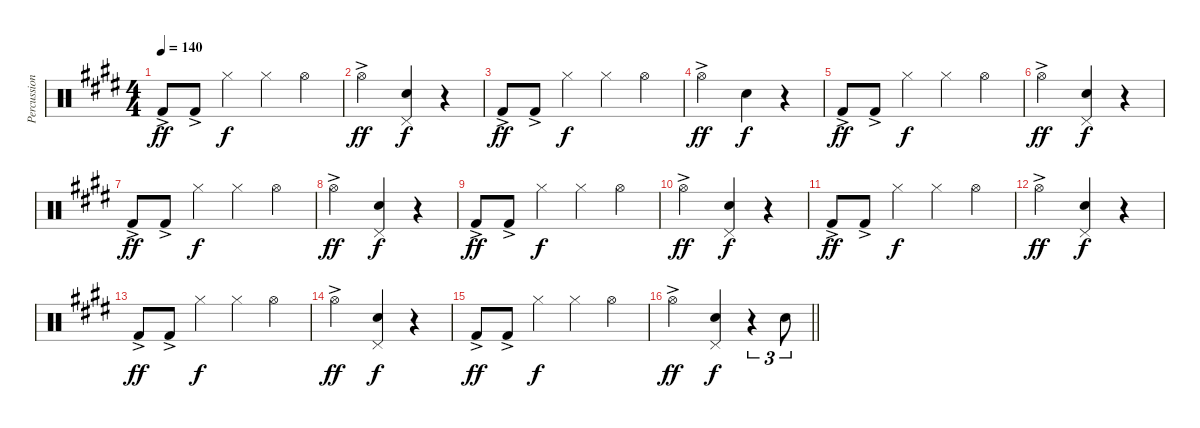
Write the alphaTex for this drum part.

\track ("Percussion" "Percussion") {instrument percussion}
\staff {score}
\articulation defaults
\ts (4 4)
\tempo 140
\clef neutral
\ks e "Kick (hit) 2"{ac}.8{dy ff} "Kick (hit) 2"{ac}.8 "Hi-Hat (closed)".4{dy f} "Hi-Hat (closed)".4 "Hi-Hat (open)".4
|
"Hi-Hat (open)"{ac}.2{dy ff} ("Snare (hit) 2" "Pedal Hi-Hat (hit)").4{dy f} r.4 |
"Kick (hit) 2"{ac}.8{dy ff} "Kick (hit) 2"{ac}.8 "Hi-Hat (closed)".4{dy f} "Hi-Hat (closed)".4 "Hi-Hat (open)".4 |
"Hi-Hat (open)"{ac}.2{dy ff} "Snare (hit) 2".4{dy f} r.4 |
"Kick (hit) 2"{ac}.8{dy ff} "Kick (hit) 2"{ac}.8 "Hi-Hat (closed)".4{dy f} "Hi-Hat (closed)".4 "Hi-Hat (open)".4 |
"Hi-Hat (open)"{ac}.2{dy ff} ("Snare (hit) 2" "Pedal Hi-Hat (hit)").4{dy f} r.4 |
"Kick (hit) 2"{ac}.8{dy ff} "Kick (hit) 2"{ac}.8 "Hi-Hat (closed)".4{dy f} "Hi-Hat (closed)".4 "Hi-Hat (open)".4 |
"Hi-Hat (open)"{ac}.2{dy ff} ("Snare (hit) 2" "Pedal Hi-Hat (hit)").4{dy f} r.4 |
"Kick (hit) 2"{ac}.8{dy ff} "Kick (hit) 2"{ac}.8 "Hi-Hat (closed)".4{dy f} "Hi-Hat (closed)".4 "Hi-Hat (open)".4 |
"Hi-Hat (open)"{ac}.2{dy ff} ("Snare (hit) 2" "Pedal Hi-Hat (hit)").4{dy f} r.4 |
"Kick (hit) 2"{ac}.8{dy ff} "Kick (hit) 2"{ac}.8 "Hi-Hat (closed)".4{dy f} "Hi-Hat (closed)".4 "Hi-Hat (open)".4 |
"Hi-Hat (open)"{ac}.2{dy ff} ("Snare (hit) 2" "Pedal Hi-Hat (hit)").4{dy f} r.4 |
"Kick (hit) 2"{ac}.8{dy ff} "Kick (hit) 2"{ac}.8 "Hi-Hat (closed)".4{dy f} "Hi-Hat (closed)".4 "Hi-Hat (open)".4 |
"Hi-Hat (open)"{ac}.2{dy ff} ("Snare (hit) 2" "Pedal Hi-Hat (hit)").4{dy f} r.4 |
"Kick (hit) 2"{ac}.8{dy ff} "Kick (hit) 2"{ac}.8 "Hi-Hat (closed)".4{dy f} "Hi-Hat (closed)".4 "Hi-Hat (open)".4 |
\barLineRight lightlight "Hi-Hat (open)"{ac}.2{dy ff}
("Snare (hit) 2" "Pedal Hi-Hat (hit)").4{dy f} r.4{tu (3 2)} "Snare (hit) 2".8{tu (3 2)}
